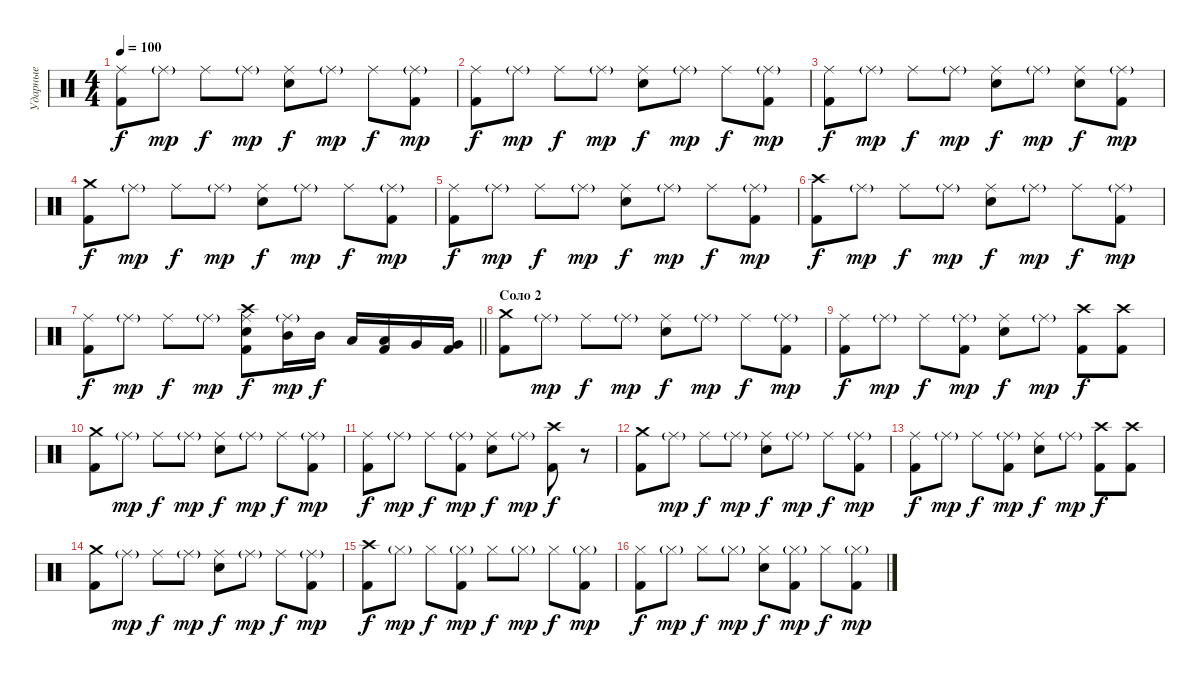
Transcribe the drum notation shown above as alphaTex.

\track ("Ударные" "Ударные") {instrument percussion}
\staff {score}
\articulation defaults
\ts (4 4)
\tempo 100
\clef neutral
\ks c
("Ride (middle)" "Kick (hit) 2").8{dy f} "Ride (middle)"{g}.8{dy mp} "Ride (middle)".8{dy f} "Ride (middle)"{g}.8{dy mp} ("Ride (middle)" "Snare (hit) 2").8{dy f} "Ride (middle)"{g}.8{dy mp} "Ride (middle)".8{dy f} ("Ride (middle)"{g} "Kick (hit) 2").8{dy mp} |
("Kick (hit) 2" "Ride (middle)").8{dy f} "Ride (middle)"{g}.8{dy mp} "Ride (middle)".8{dy f} "Ride (middle)"{g}.8{dy mp} ("Ride (middle)" "Snare (hit) 2").8{dy f} "Ride (middle)"{g}.8{dy mp} "Ride (middle)".8{dy f} ("Ride (middle)"{g} "Kick (hit) 2").8{dy mp} |
("Ride (middle)" "Kick (hit) 2").8{dy f} "Ride (middle)"{g}.8{dy mp} "Ride (middle)".8{dy f} "Ride (middle)"{g}.8{dy mp} ("Ride (middle)" "Snare (hit) 2").8{dy f} "Ride (middle)"{g}.8{dy mp} ("Ride (middle)" "Snare (hit) 2").8{dy f} ("Ride (middle)"{g} "Kick (hit) 2").8{dy mp} |
("Kick (hit) 2" "Crash medium (hit)").8{dy f} "Ride (middle)"{g}.8{dy mp} "Ride (middle)".8{dy f} "Ride (middle)"{g}.8{dy mp} ("Ride (middle)" "Snare (hit) 2").8{dy f} "Ride (middle)"{g}.8{dy mp} "Ride (middle)".8{dy f} ("Ride (middle)"{g} "Kick (hit) 2").8{dy mp} |
("Ride (middle)" "Kick (hit) 2").8{dy f} "Ride (middle)"{g}.8{dy mp} "Ride (middle)".8{dy f} "Ride (middle)"{g}.8{dy mp} ("Ride (middle)" "Snare (hit) 2").8{dy f} "Ride (middle)"{g}.8{dy mp} "Ride (middle)".8{dy f} ("Ride (middle)"{g} "Kick (hit) 2").8{dy mp} |
("Kick (hit) 2" "Crash high (hit)").8{dy f} "Ride (middle)"{g}.8{dy mp} "Ride (middle)".8{dy f} "Ride (middle)"{g}.8{dy mp} ("Ride (middle)" "Snare (hit) 2").8{dy f} "Ride (middle)"{g}.8{dy mp} "Ride (middle)".8{dy f} ("Ride (middle)"{g} "Kick (hit) 2").8{dy mp} |
\barLineRight lightlight
("Ride (middle)" "Kick (hit) 2").8{dy f} "Ride (middle)"{g}.8{dy mp} "Ride (middle)".8{dy f} "Ride (middle)"{g}.8{dy mp} ("Ride (middle)" "Crash high (hit)" "Snare (hit) 2" "Kick (hit) 2").8{dy f} ("Ride (middle)"{g} "Mid Tom (hit)").16{dy mp} "Mid Tom (hit)".16{dy f} "Low Tom (hit)".16 ("Low Tom (hit)" "Kick (hit) 2").16 "Very Low Tom (hit)".16 ("Very Low Tom (hit)" "Kick (hit) 2").16 |
\section ("" "Соло 2")
("Kick (hit) 2" "Crash medium (hit)").8 "Ride (middle)"{g}.8{dy mp} "Ride (middle)".8{dy f} "Ride (middle)"{g}.8{dy mp} ("Ride (middle)" "Snare (hit) 2").8{dy f} "Ride (middle)"{g}.8{dy mp} "Ride (middle)".8{dy f} ("Ride (middle)"{g} "Kick (hit) 2").8{dy mp} |
("Ride (middle)" "Kick (hit) 2").8{dy f} "Ride (middle)"{g}.8{dy mp} "Ride (middle)".8{dy f} ("Ride (middle)"{g} "Kick (hit) 2").8{dy mp} ("Ride (middle)" "Snare (hit) 2").8{dy f} "Ride (middle)"{g}.8{dy mp} ("Crash high (hit)" "Kick (hit) 2").8{dy f} ("Crash high (hit)" "Kick (hit) 2").8 |
("Kick (hit) 2" "Crash medium (hit)").8 "Ride (middle)"{g}.8{dy mp} "Ride (middle)".8{dy f} "Ride (middle)"{g}.8{dy mp} ("Ride (middle)" "Snare (hit) 2").8{dy f} "Ride (middle)"{g}.8{dy mp} "Ride (middle)".8{dy f} ("Ride (middle)"{g} "Kick (hit) 2").8{dy mp} |
("Ride (middle)" "Kick (hit) 2").8{dy f} "Ride (middle)"{g}.8{dy mp} "Ride (middle)".8{dy f} ("Ride (middle)"{g} "Kick (hit) 2").8{dy mp} ("Ride (middle)" "Snare (hit) 2").8{dy f} "Ride (middle)"{g}.8{dy mp} ("Crash high (hit)" "Kick (hit) 2").8{dy f} r.8 |
("Kick (hit) 2" "Crash medium (hit)").8 "Ride (middle)"{g}.8{dy mp} "Ride (middle)".8{dy f} "Ride (middle)"{g}.8{dy mp} ("Ride (middle)" "Snare (hit) 2").8{dy f} "Ride (middle)"{g}.8{dy mp} "Ride (middle)".8{dy f} ("Ride (middle)"{g} "Kick (hit) 2").8{dy mp} |
("Ride (middle)" "Kick (hit) 2").8{dy f} "Ride (middle)"{g}.8{dy mp} "Ride (middle)".8{dy f} ("Ride (middle)"{g} "Kick (hit) 2").8{dy mp} ("Ride (middle)" "Snare (hit) 2").8{dy f} "Ride (middle)"{g}.8{dy mp} ("Crash high (hit)" "Kick (hit) 2").8{dy f} ("Crash high (hit)" "Kick (hit) 2").8 |
("Kick (hit) 2" "Crash medium (hit)").8 "Ride (middle)"{g}.8{dy mp} "Ride (middle)".8{dy f} "Ride (middle)"{g}.8{dy mp} ("Ride (middle)" "Snare (hit) 2").8{dy f} "Ride (middle)"{g}.8{dy mp} "Ride (middle)".8{dy f} ("Ride (middle)"{g} "Kick (hit) 2").8{dy mp} |
("Crash high (hit)" "Kick (hit) 2").8{dy f} "Hi-Hat (closed)"{g}.8{dy mp} "Hi-Hat (closed)".8{dy f} ("Hi-Hat (closed)"{g} "Kick (hit) 2").8{dy mp} "Hi-Hat (closed)".8{dy f} "Hi-Hat (closed)"{g}.8{dy mp} "Hi-Hat (closed)".8{dy f} ("Hi-Hat (closed)"{g} "Kick (hit) 2").8{dy mp} |
("Hi-Hat (closed)" "Kick (hit) 2").8{dy f} "Hi-Hat (closed)"{g}.8{dy mp} "Hi-Hat (closed)".8{dy f} "Hi-Hat (closed)"{g}.8{dy mp} ("Hi-Hat (closed)" "Snare (hit) 2").8{dy f} ("Hi-Hat (closed)"{g} "Kick (hit) 2").8{dy mp} "Hi-Hat (closed)".8{dy f} ("Hi-Hat (closed)"{g} "Kick (hit) 2").8{dy mp}
